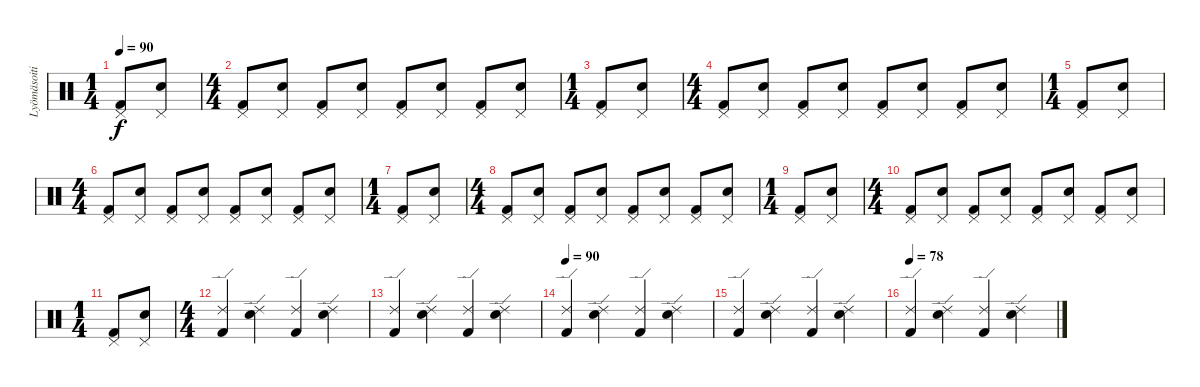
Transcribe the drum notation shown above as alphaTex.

\track ("Lyömäsoitin" "Lyömäsoiti") {instrument percussion}
\staff {score}
\articulation defaults
\ts (1 4)
\tempo 90
\clef neutral
\ks c
("Pedal Hi-Hat (hit)" "Kick (hit) 2").8{dy f} ("Pedal Hi-Hat (hit)" "Snare (hit) 2").8 |
\ts (4 4)
("Pedal Hi-Hat (hit)" "Kick (hit) 2").8 ("Pedal Hi-Hat (hit)" "Snare (hit) 2").8 ("Pedal Hi-Hat (hit)" "Kick (hit) 2").8 ("Pedal Hi-Hat (hit)" "Snare (hit) 2").8 ("Pedal Hi-Hat (hit)" "Kick (hit) 2").8 ("Pedal Hi-Hat (hit)" "Snare (hit) 2").8 ("Pedal Hi-Hat (hit)" "Kick (hit) 2").8 ("Pedal Hi-Hat (hit)" "Snare (hit) 2").8 |
\ts (1 4)
("Pedal Hi-Hat (hit)" "Kick (hit) 2").8 ("Pedal Hi-Hat (hit)" "Snare (hit) 2").8 |
\ts (4 4)
("Pedal Hi-Hat (hit)" "Kick (hit) 2").8 ("Pedal Hi-Hat (hit)" "Snare (hit) 2").8 ("Pedal Hi-Hat (hit)" "Kick (hit) 2").8 ("Pedal Hi-Hat (hit)" "Snare (hit) 2").8 ("Pedal Hi-Hat (hit)" "Kick (hit) 2").8 ("Pedal Hi-Hat (hit)" "Snare (hit) 2").8 ("Pedal Hi-Hat (hit)" "Kick (hit) 2").8 ("Pedal Hi-Hat (hit)" "Snare (hit) 2").8 |
\ts (1 4)
("Pedal Hi-Hat (hit)" "Kick (hit) 2").8 ("Pedal Hi-Hat (hit)" "Snare (hit) 2").8 |
\ts (4 4)
("Pedal Hi-Hat (hit)" "Kick (hit) 2").8 ("Pedal Hi-Hat (hit)" "Snare (hit) 2").8 ("Pedal Hi-Hat (hit)" "Kick (hit) 2").8 ("Pedal Hi-Hat (hit)" "Snare (hit) 2").8 ("Pedal Hi-Hat (hit)" "Kick (hit) 2").8 ("Pedal Hi-Hat (hit)" "Snare (hit) 2").8 ("Pedal Hi-Hat (hit)" "Kick (hit) 2").8 ("Pedal Hi-Hat (hit)" "Snare (hit) 2").8 |
\ts (1 4)
("Pedal Hi-Hat (hit)" "Kick (hit) 2").8 ("Pedal Hi-Hat (hit)" "Snare (hit) 2").8 |
\ts (4 4)
("Pedal Hi-Hat (hit)" "Kick (hit) 2").8 ("Pedal Hi-Hat (hit)" "Snare (hit) 2").8 ("Pedal Hi-Hat (hit)" "Kick (hit) 2").8 ("Pedal Hi-Hat (hit)" "Snare (hit) 2").8 ("Pedal Hi-Hat (hit)" "Kick (hit) 2").8 ("Pedal Hi-Hat (hit)" "Snare (hit) 2").8 ("Pedal Hi-Hat (hit)" "Kick (hit) 2").8 ("Pedal Hi-Hat (hit)" "Snare (hit) 2").8 |
\ts (1 4)
("Pedal Hi-Hat (hit)" "Kick (hit) 2").8 ("Pedal Hi-Hat (hit)" "Snare (hit) 2").8 |
\ts (4 4)
("Pedal Hi-Hat (hit)" "Kick (hit) 2").8 ("Pedal Hi-Hat (hit)" "Snare (hit) 2").8 ("Pedal Hi-Hat (hit)" "Kick (hit) 2").8 ("Pedal Hi-Hat (hit)" "Snare (hit) 2").8 ("Pedal Hi-Hat (hit)" "Kick (hit) 2").8 ("Pedal Hi-Hat (hit)" "Snare (hit) 2").8 ("Pedal Hi-Hat (hit)" "Kick (hit) 2").8 ("Pedal Hi-Hat (hit)" "Snare (hit) 2").8 |
\ts (1 4)
("Pedal Hi-Hat (hit)" "Kick (hit) 2").8 ("Pedal Hi-Hat (hit)" "Snare (hit) 2").8 |
\ts (4 4)
("Ride (edge) 2" "Kick (hit) 2").4 ("Ride (edge) 2" "Snare (hit) 2").4 ("Ride (edge) 2" "Kick (hit) 2").4 ("Ride (edge) 2" "Snare (hit) 2").4 |
("Ride (edge) 2" "Kick (hit) 2").4 ("Ride (edge) 2" "Snare (hit) 2").4 ("Ride (edge) 2" "Kick (hit) 2").4 ("Ride (edge) 2" "Snare (hit) 2").4 |
\tempo 90
("Ride (edge) 2" "Kick (hit) 2").4 ("Ride (edge) 2" "Snare (hit) 2").4 ("Ride (edge) 2" "Kick (hit) 2").4 ("Ride (edge) 2" "Snare (hit) 2").4 |
("Ride (edge) 2" "Kick (hit) 2").4 ("Ride (edge) 2" "Snare (hit) 2").4 ("Ride (edge) 2" "Kick (hit) 2").4 ("Ride (edge) 2" "Snare (hit) 2").4 |
\tempo 78
("Ride (edge) 2" "Kick (hit) 2").4 ("Ride (edge) 2" "Snare (hit) 2").4 ("Ride (edge) 2" "Kick (hit) 2").4 ("Ride (edge) 2" "Snare (hit) 2").4
